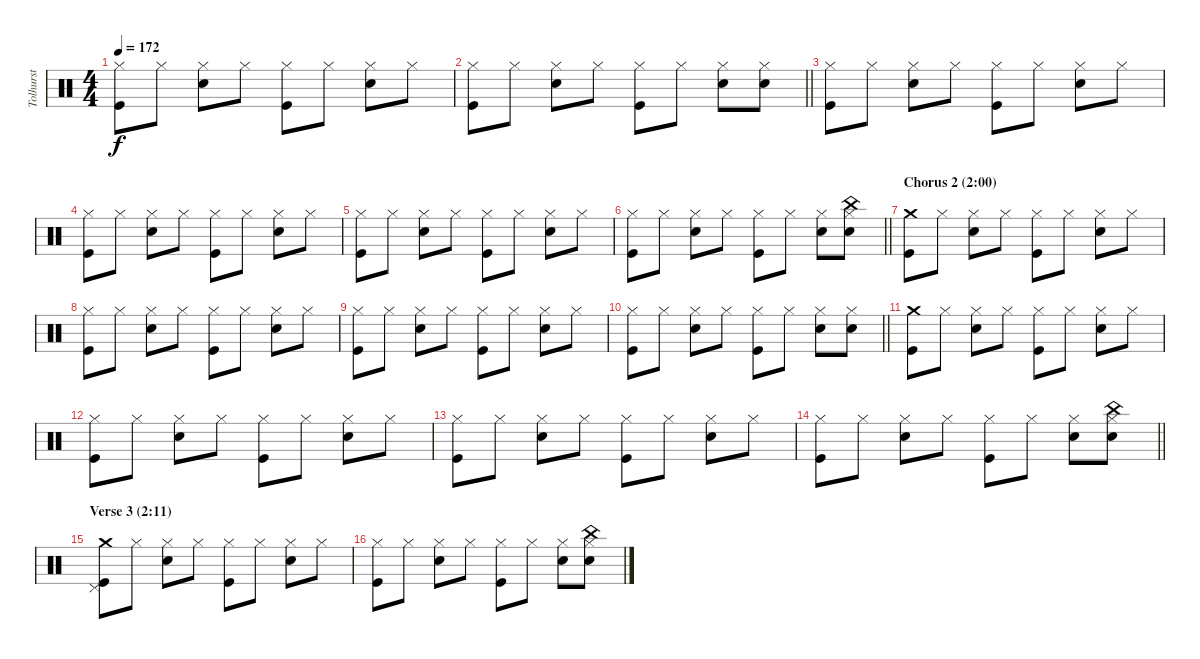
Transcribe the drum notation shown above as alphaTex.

\track ("Tolhurst" "Tolhurst") {instrument percussion}
\staff {score}
\articulation defaults
\ts (4 4)
\tempo 172
\clef neutral
\ks c
("Hi-Hat (closed)" "Kick (hit)").8{dy f} "Hi-Hat (closed)".8 ("Hi-Hat (closed)" "Snare (hit) 2").8 "Hi-Hat (closed)".8 ("Hi-Hat (closed)" "Kick (hit)").8 "Hi-Hat (closed)".8 ("Hi-Hat (closed)" "Snare (hit) 2").8 "Hi-Hat (closed)".8 |
\barLineRight lightlight
("Hi-Hat (closed)" "Kick (hit)").8 "Hi-Hat (closed)".8 ("Hi-Hat (closed)" "Snare (hit) 2").8 "Hi-Hat (closed)".8 ("Hi-Hat (closed)" "Kick (hit)").8 "Hi-Hat (closed)".8 ("Hi-Hat (closed)" "Snare (hit) 2").8 ("Hi-Hat (closed)" "Snare (hit) 2").8 |
("Hi-Hat (closed)" "Kick (hit)").8 "Hi-Hat (closed)".8 ("Hi-Hat (closed)" "Snare (hit) 2").8 "Hi-Hat (closed)".8 ("Hi-Hat (closed)" "Kick (hit)").8 "Hi-Hat (closed)".8 ("Hi-Hat (closed)" "Snare (hit) 2").8 "Hi-Hat (closed)".8 |
("Hi-Hat (closed)" "Kick (hit)").8 "Hi-Hat (closed)".8 ("Hi-Hat (closed)" "Snare (hit) 2").8 "Hi-Hat (closed)".8 ("Hi-Hat (closed)" "Kick (hit)").8 "Hi-Hat (closed)".8 ("Hi-Hat (closed)" "Snare (hit) 2").8 "Hi-Hat (closed)".8 |
("Hi-Hat (closed)" "Kick (hit)").8 "Hi-Hat (closed)".8 ("Hi-Hat (closed)" "Snare (hit) 2").8 "Hi-Hat (closed)".8 ("Hi-Hat (closed)" "Kick (hit)").8 "Hi-Hat (closed)".8 ("Hi-Hat (closed)" "Snare (hit) 2").8 "Hi-Hat (closed)".8 |
\barLineRight lightlight
("Hi-Hat (closed)" "Kick (hit)").8 "Hi-Hat (closed)".8 ("Hi-Hat (closed)" "Snare (hit) 2").8 "Hi-Hat (closed)".8 ("Hi-Hat (closed)" "Kick (hit)").8 "Hi-Hat (closed)".8 ("Hi-Hat (closed)" "Snare (hit) 2").8 ("China (hit)" "Hi-Hat (closed)" "Snare (hit) 2").8 |
\section ("" "Chorus 2 (2:00)")
("Crash medium (hit)" "Kick (hit)").8 "Hi-Hat (closed)".8 ("Hi-Hat (closed)" "Snare (hit) 2").8 "Hi-Hat (closed)".8 ("Hi-Hat (closed)" "Kick (hit)").8 "Hi-Hat (closed)".8 ("Hi-Hat (closed)" "Snare (hit) 2").8 "Hi-Hat (closed)".8 |
("Hi-Hat (closed)" "Kick (hit)").8 "Hi-Hat (closed)".8 ("Hi-Hat (closed)" "Snare (hit) 2").8 "Hi-Hat (closed)".8 ("Hi-Hat (closed)" "Kick (hit)").8 "Hi-Hat (closed)".8 ("Hi-Hat (closed)" "Snare (hit) 2").8 "Hi-Hat (closed)".8 |
("Hi-Hat (closed)" "Kick (hit)").8 "Hi-Hat (closed)".8 ("Hi-Hat (closed)" "Snare (hit) 2").8 "Hi-Hat (closed)".8 ("Hi-Hat (closed)" "Kick (hit)").8 "Hi-Hat (closed)".8 ("Hi-Hat (closed)" "Snare (hit) 2").8 "Hi-Hat (closed)".8 |
\barLineRight lightlight
("Hi-Hat (closed)" "Kick (hit)").8 "Hi-Hat (closed)".8 ("Hi-Hat (closed)" "Snare (hit) 2").8 "Hi-Hat (closed)".8 ("Hi-Hat (closed)" "Kick (hit)").8 "Hi-Hat (closed)".8 ("Hi-Hat (closed)" "Snare (hit) 2").8 ("Hi-Hat (closed)" "Snare (hit) 2").8 |
("Crash medium (hit)" "Kick (hit)").8 "Hi-Hat (closed)".8 ("Hi-Hat (closed)" "Snare (hit) 2").8 "Hi-Hat (closed)".8 ("Hi-Hat (closed)" "Kick (hit)").8 "Hi-Hat (closed)".8 ("Hi-Hat (closed)" "Snare (hit) 2").8 "Hi-Hat (closed)".8 |
("Hi-Hat (closed)" "Kick (hit)").8 "Hi-Hat (closed)".8 ("Hi-Hat (closed)" "Snare (hit) 2").8 "Hi-Hat (closed)".8 ("Hi-Hat (closed)" "Kick (hit)").8 "Hi-Hat (closed)".8 ("Hi-Hat (closed)" "Snare (hit) 2").8 "Hi-Hat (closed)".8 |
("Hi-Hat (closed)" "Kick (hit)").8 "Hi-Hat (closed)".8 ("Hi-Hat (closed)" "Snare (hit) 2").8 "Hi-Hat (closed)".8 ("Hi-Hat (closed)" "Kick (hit)").8 "Hi-Hat (closed)".8 ("Hi-Hat (closed)" "Snare (hit) 2").8 "Hi-Hat (closed)".8 |
\barLineRight lightlight
("Hi-Hat (closed)" "Kick (hit)").8 "Hi-Hat (closed)".8 ("Hi-Hat (closed)" "Snare (hit) 2").8 "Hi-Hat (closed)".8 ("Hi-Hat (closed)" "Kick (hit)").8 "Hi-Hat (closed)".8 ("Hi-Hat (closed)" "Snare (hit) 2").8 ("China (hit)" "Hi-Hat (closed)" "Snare (hit) 2").8 |
\section ("" "Verse 3 (2:11)")
("Crash medium (hit)" "Pedal Hi-Hat (hit)" "Kick (hit)").8 "Hi-Hat (closed)".8 ("Hi-Hat (closed)" "Snare (hit) 2").8 "Hi-Hat (closed)".8 ("Hi-Hat (closed)" "Kick (hit)").8 "Hi-Hat (closed)".8 ("Hi-Hat (closed)" "Snare (hit) 2").8 "Hi-Hat (closed)".8 |
("Hi-Hat (closed)" "Kick (hit)").8 "Hi-Hat (closed)".8 ("Hi-Hat (closed)" "Snare (hit) 2").8 "Hi-Hat (closed)".8 ("Hi-Hat (closed)" "Kick (hit)").8 "Hi-Hat (closed)".8 ("Hi-Hat (closed)" "Snare (hit) 2").8 ("China (hit)" "Hi-Hat (closed)" "Snare (hit) 2").8
